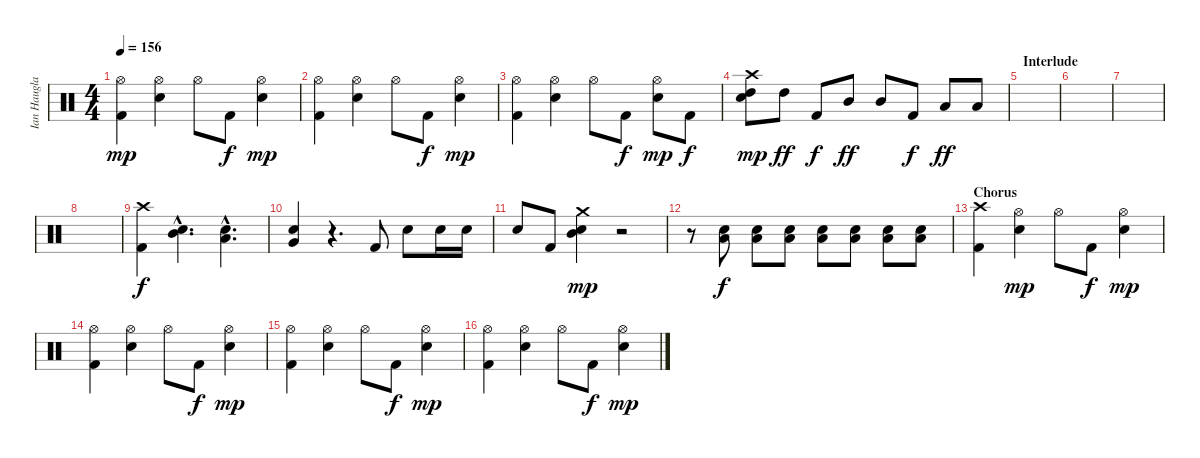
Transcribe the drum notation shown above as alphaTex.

\track ("Ian Haugland" "Ian Haugla") {instrument percussion}
\staff {score}
\articulation defaults
\ts (4 4)
\tempo 156
\clef neutral
\ks c
("Kick (hit) 2" "Hi-Hat (open)").4{dy mp} ("Hi-Hat (open)" "Snare (hit) 2").4 "Hi-Hat (open)".8 "Kick (hit) 2".8{dy f} ("Hi-Hat (open)" "Snare (hit) 2").4{dy mp} |
("Kick (hit) 2" "Hi-Hat (open)").4 ("Hi-Hat (open)" "Snare (hit) 2").4 "Hi-Hat (open)".8 "Kick (hit) 2".8{dy f} ("Hi-Hat (open)" "Snare (hit) 2").4{dy mp} |
("Kick (hit) 2" "Hi-Hat (open)").4 ("Hi-Hat (open)" "Snare (hit) 2").4 "Hi-Hat (open)".8 "Kick (hit) 2".8{dy f} ("Hi-Hat (open)" "Snare (hit) 2").8{dy mp} "Kick (hit) 2".8{dy f} |
("Crash high (hit)" "High Tom (hit)" "Snare (hit) 2").8{dy mp} "High Tom (hit)".8{dy ff} "Kick (hit) 2".8{dy f} "Mid Tom (hit)".8{dy ff} "Mid Tom (hit)".8 "Kick (hit) 2".8{dy f} "Low Tom (hit)".8{dy ff} "Low Tom (hit)".8 |
\section ("" "Interlude")
|
|
|
|
("Kick (hit) 2" "Crash high (hit)").4{dy f} ("Snare (hit) 2"{hac} "Mid Tom (hit)"{hac}).4{d} ("Snare (hit) 2"{hac} "Low Tom (hit)"{hac}).4{d} |
("Snare (hit) 2" "Very Low Tom (hit)").4 r.4{d} "Kick (hit) 2".8 "Snare (hit) 2".8 "Snare (hit) 2".16 "Snare (hit) 2".16 |
"Snare (hit) 2".8 "Kick (hit) 2".8 ("Crash medium (hit)" "Snare (hit) 2" "Mid Tom (hit)").4{dy mp} r.2 |
r.8 ("Snare (hit) 2" "Low Tom (hit)").8{dy f} ("Snare (hit) 2" "Low Tom (hit)").8 ("Snare (hit) 2" "Low Tom (hit)").8 ("Snare (hit) 2" "Low Tom (hit)").8 ("Snare (hit) 2" "Low Tom (hit)").8 ("Snare (hit) 2" "Low Tom (hit)").8 ("Snare (hit) 2" "Low Tom (hit)").8 |
\section ("" "Chorus")
("Kick (hit) 2" "Crash high (hit)").4 ("Hi-Hat (open)" "Snare (hit) 2").4{dy mp} "Hi-Hat (open)".8 "Kick (hit) 2".8{dy f} ("Hi-Hat (open)" "Snare (hit) 2").4{dy mp} |
("Kick (hit) 2" "Hi-Hat (open)").4 ("Hi-Hat (open)" "Snare (hit) 2").4 "Hi-Hat (open)".8 "Kick (hit) 2".8{dy f} ("Hi-Hat (open)" "Snare (hit) 2").4{dy mp} |
("Kick (hit) 2" "Hi-Hat (open)").4 ("Hi-Hat (open)" "Snare (hit) 2").4 "Hi-Hat (open)".8 "Kick (hit) 2".8{dy f} ("Hi-Hat (open)" "Snare (hit) 2").4{dy mp} |
("Kick (hit) 2" "Hi-Hat (open)").4 ("Hi-Hat (open)" "Snare (hit) 2").4 "Hi-Hat (open)".8 "Kick (hit) 2".8{dy f} ("Hi-Hat (open)" "Snare (hit) 2").4{dy mp}
